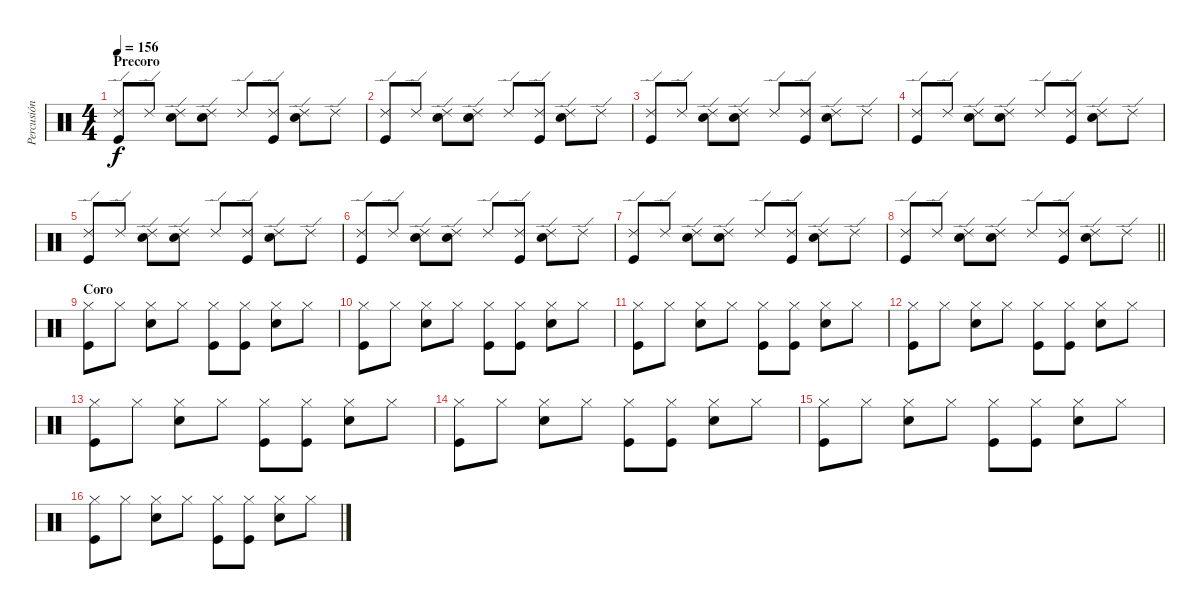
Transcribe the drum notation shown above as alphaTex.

\track ("Percusión" "Percusión") {instrument percussion}
\staff {score}
\articulation defaults
\ts (4 4)
\section ("" "Precoro")
\tempo 156
\clef neutral
\ks c
("Ride (edge) 2" "Kick (hit)").8{dy f} "Ride (edge) 2".8 ("Ride (edge) 2" "Electric Snare (hit)").8 ("Ride (edge) 2" "Electric Snare (hit)").8 "Ride (edge) 2".8 ("Ride (edge) 2" "Kick (hit)").8 ("Ride (edge) 2" "Electric Snare (hit)").8 "Ride (edge) 2".8 |
("Ride (edge) 2" "Kick (hit)").8 "Ride (edge) 2".8 ("Ride (edge) 2" "Electric Snare (hit)").8 ("Ride (edge) 2" "Electric Snare (hit)").8 "Ride (edge) 2".8 ("Ride (edge) 2" "Kick (hit)").8 ("Ride (edge) 2" "Electric Snare (hit)").8 "Ride (edge) 2".8 |
("Ride (edge) 2" "Kick (hit)").8 "Ride (edge) 2".8 ("Ride (edge) 2" "Electric Snare (hit)").8 ("Ride (edge) 2" "Electric Snare (hit)").8 "Ride (edge) 2".8 ("Ride (edge) 2" "Kick (hit)").8 ("Ride (edge) 2" "Electric Snare (hit)").8 "Ride (edge) 2".8 |
("Ride (edge) 2" "Kick (hit)").8 "Ride (edge) 2".8 ("Ride (edge) 2" "Electric Snare (hit)").8 ("Ride (edge) 2" "Electric Snare (hit)").8 "Ride (edge) 2".8 ("Ride (edge) 2" "Kick (hit)").8 ("Ride (edge) 2" "Electric Snare (hit)").8 "Ride (edge) 2".8 |
("Ride (edge) 2" "Kick (hit)").8 "Ride (edge) 2".8 ("Ride (edge) 2" "Electric Snare (hit)").8 ("Ride (edge) 2" "Electric Snare (hit)").8 "Ride (edge) 2".8 ("Ride (edge) 2" "Kick (hit)").8 ("Ride (edge) 2" "Electric Snare (hit)").8 "Ride (edge) 2".8 |
("Ride (edge) 2" "Kick (hit)").8 "Ride (edge) 2".8 ("Ride (edge) 2" "Electric Snare (hit)").8 ("Ride (edge) 2" "Electric Snare (hit)").8 "Ride (edge) 2".8 ("Ride (edge) 2" "Kick (hit)").8 ("Ride (edge) 2" "Electric Snare (hit)").8 "Ride (edge) 2".8 |
("Ride (edge) 2" "Kick (hit)").8 "Ride (edge) 2".8 ("Ride (edge) 2" "Electric Snare (hit)").8 ("Ride (edge) 2" "Electric Snare (hit)").8 "Ride (edge) 2".8 ("Ride (edge) 2" "Kick (hit)").8 ("Ride (edge) 2" "Electric Snare (hit)").8 "Ride (edge) 2".8 |
\barLineRight lightlight
("Ride (edge) 2" "Kick (hit)").8 "Ride (edge) 2".8 ("Ride (edge) 2" "Electric Snare (hit)").8 ("Ride (edge) 2" "Electric Snare (hit)").8 "Ride (edge) 2".8 ("Ride (edge) 2" "Kick (hit)").8 ("Ride (edge) 2" "Electric Snare (hit)").8 "Ride (edge) 2".8 |
\section ("" "Coro")
("Hi-Hat (closed)" "Kick (hit)").8 "Hi-Hat (closed)".8 ("Hi-Hat (closed)" "Electric Snare (hit)").8 "Hi-Hat (closed)".8 ("Hi-Hat (closed)" "Kick (hit)").8 ("Hi-Hat (closed)" "Kick (hit)").8 ("Hi-Hat (closed)" "Electric Snare (hit)").8 "Hi-Hat (closed)".8 |
("Hi-Hat (closed)" "Kick (hit)").8 "Hi-Hat (closed)".8 ("Hi-Hat (closed)" "Electric Snare (hit)").8 "Hi-Hat (closed)".8 ("Hi-Hat (closed)" "Kick (hit)").8 ("Hi-Hat (closed)" "Kick (hit)").8 ("Hi-Hat (closed)" "Electric Snare (hit)").8 "Hi-Hat (closed)".8 |
("Hi-Hat (closed)" "Kick (hit)").8 "Hi-Hat (closed)".8 ("Hi-Hat (closed)" "Electric Snare (hit)").8 "Hi-Hat (closed)".8 ("Hi-Hat (closed)" "Kick (hit)").8 ("Hi-Hat (closed)" "Kick (hit)").8 ("Hi-Hat (closed)" "Electric Snare (hit)").8 "Hi-Hat (closed)".8 |
("Hi-Hat (closed)" "Kick (hit)").8 "Hi-Hat (closed)".8 ("Hi-Hat (closed)" "Electric Snare (hit)").8 "Hi-Hat (closed)".8 ("Hi-Hat (closed)" "Kick (hit)").8 ("Hi-Hat (closed)" "Kick (hit)").8 ("Hi-Hat (closed)" "Electric Snare (hit)").8 "Hi-Hat (closed)".8 |
("Hi-Hat (closed)" "Kick (hit)").8 "Hi-Hat (closed)".8 ("Hi-Hat (closed)" "Electric Snare (hit)").8 "Hi-Hat (closed)".8 ("Hi-Hat (closed)" "Kick (hit)").8 ("Hi-Hat (closed)" "Kick (hit)").8 ("Hi-Hat (closed)" "Electric Snare (hit)").8 "Hi-Hat (closed)".8 |
("Hi-Hat (closed)" "Kick (hit)").8 "Hi-Hat (closed)".8 ("Hi-Hat (closed)" "Electric Snare (hit)").8 "Hi-Hat (closed)".8 ("Hi-Hat (closed)" "Kick (hit)").8 ("Hi-Hat (closed)" "Kick (hit)").8 ("Hi-Hat (closed)" "Electric Snare (hit)").8 "Hi-Hat (closed)".8 |
("Hi-Hat (closed)" "Kick (hit)").8 "Hi-Hat (closed)".8 ("Hi-Hat (closed)" "Electric Snare (hit)").8 "Hi-Hat (closed)".8 ("Hi-Hat (closed)" "Kick (hit)").8 ("Hi-Hat (closed)" "Kick (hit)").8 ("Hi-Hat (closed)" "Electric Snare (hit)").8 "Hi-Hat (closed)".8 |
("Hi-Hat (closed)" "Kick (hit)").8 "Hi-Hat (closed)".8 ("Hi-Hat (closed)" "Electric Snare (hit)").8 "Hi-Hat (closed)".8 ("Hi-Hat (closed)" "Kick (hit)").8 ("Hi-Hat (closed)" "Kick (hit)").8 ("Hi-Hat (closed)" "Electric Snare (hit)").8 "Hi-Hat (closed)".8
